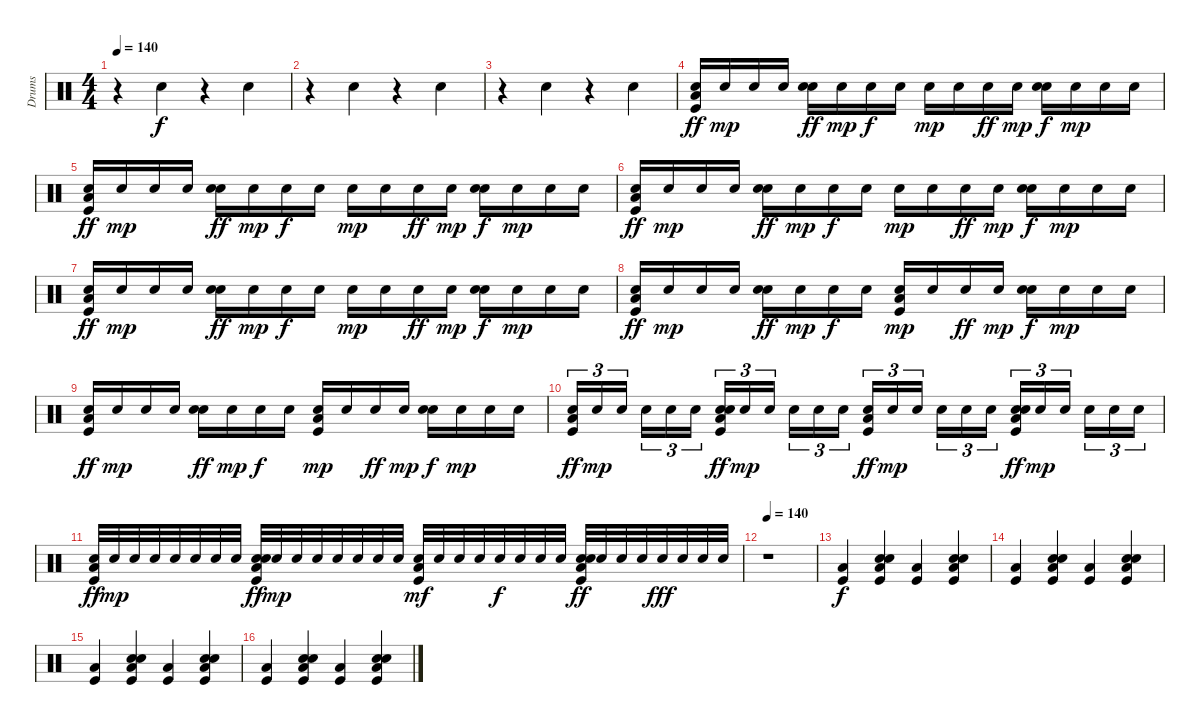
\track ("Drums" "Drums") {instrument percussion}
\staff {score}
\articulation defaults
\ts (4 4)
\tempo 140
\clef neutral
\ks c
r.4{dy f} "Hand Clap (hit)".4 r.4 "Hand Clap (hit)".4 |
r.4 "Hand Clap (hit)".4 r.4 "Hand Clap (hit)".4 |
r.4 "Hand Clap (hit)".4 r.4 "Hand Clap (hit)".4 |
("Snare (hit) 2" "Low Floor Tom (hit)" "Kick (hit)").16{dy ff} "Snare (hit) 2".16{dy mp} "Snare (hit) 2".16 "Snare (hit) 2".16 ("Hand Clap (hit)" "Snare (hit) 2").16{dy ff} "Snare (hit) 2".16{dy mp} "Snare (hit) 2".16{dy f} "Snare (hit) 2".16 "Snare (hit) 2".16{dy mp} "Snare (hit) 2".16 "Snare (hit) 2".16{dy ff} "Snare (hit) 2".16{dy mp} ("Hand Clap (hit)" "Snare (hit) 2").16{dy f} "Snare (hit) 2".16{dy mp} "Snare (hit) 2".16 "Snare (hit) 2".16 |
("Snare (hit) 2" "Low Floor Tom (hit)" "Kick (hit)").16{dy ff} "Snare (hit) 2".16{dy mp} "Snare (hit) 2".16 "Snare (hit) 2".16 ("Hand Clap (hit)" "Snare (hit) 2").16{dy ff} "Snare (hit) 2".16{dy mp} "Snare (hit) 2".16{dy f} "Snare (hit) 2".16 "Snare (hit) 2".16{dy mp} "Snare (hit) 2".16 "Snare (hit) 2".16{dy ff} "Snare (hit) 2".16{dy mp} ("Hand Clap (hit)" "Snare (hit) 2").16{dy f} "Snare (hit) 2".16{dy mp} "Snare (hit) 2".16 "Snare (hit) 2".16 |
("Snare (hit) 2" "Low Floor Tom (hit)" "Kick (hit)").16{dy ff} "Snare (hit) 2".16{dy mp} "Snare (hit) 2".16 "Snare (hit) 2".16 ("Hand Clap (hit)" "Snare (hit) 2").16{dy ff} "Snare (hit) 2".16{dy mp} "Snare (hit) 2".16{dy f} "Snare (hit) 2".16 "Snare (hit) 2".16{dy mp} "Snare (hit) 2".16 "Snare (hit) 2".16{dy ff} "Snare (hit) 2".16{dy mp} ("Hand Clap (hit)" "Snare (hit) 2").16{dy f} "Snare (hit) 2".16{dy mp} "Snare (hit) 2".16 "Snare (hit) 2".16 |
("Snare (hit) 2" "Low Floor Tom (hit)" "Kick (hit)").16{dy ff} "Snare (hit) 2".16{dy mp} "Snare (hit) 2".16 "Snare (hit) 2".16 ("Hand Clap (hit)" "Snare (hit) 2").16{dy ff} "Snare (hit) 2".16{dy mp} "Snare (hit) 2".16{dy f} "Snare (hit) 2".16 "Snare (hit) 2".16{dy mp} "Snare (hit) 2".16 "Snare (hit) 2".16{dy ff} "Snare (hit) 2".16{dy mp} ("Hand Clap (hit)" "Snare (hit) 2").16{dy f} "Snare (hit) 2".16{dy mp} "Snare (hit) 2".16 "Snare (hit) 2".16 |
("Snare (hit) 2" "Low Floor Tom (hit)" "Kick (hit)").16{dy ff} "Snare (hit) 2".16{dy mp} "Snare (hit) 2".16 "Snare (hit) 2".16 ("Hand Clap (hit)" "Snare (hit) 2").16{dy ff} "Snare (hit) 2".16{dy mp} "Snare (hit) 2".16{dy f} "Snare (hit) 2".16 ("Snare (hit) 2" "Low Floor Tom (hit)" "Kick (hit)").16{dy mp} "Snare (hit) 2".16 "Snare (hit) 2".16{dy ff} "Snare (hit) 2".16{dy mp} ("Hand Clap (hit)" "Snare (hit) 2").16{dy f} "Snare (hit) 2".16{dy mp} "Snare (hit) 2".16 "Snare (hit) 2".16 |
("Snare (hit) 2" "Low Floor Tom (hit)" "Kick (hit)").16{dy ff} "Snare (hit) 2".16{dy mp} "Snare (hit) 2".16 "Snare (hit) 2".16 ("Hand Clap (hit)" "Snare (hit) 2").16{dy ff} "Snare (hit) 2".16{dy mp} "Snare (hit) 2".16{dy f} "Snare (hit) 2".16 ("Snare (hit) 2" "Low Floor Tom (hit)" "Kick (hit)").16{dy mp} "Snare (hit) 2".16 "Snare (hit) 2".16{dy ff} "Snare (hit) 2".16{dy mp} ("Hand Clap (hit)" "Snare (hit) 2").16{dy f} "Snare (hit) 2".16{dy mp} "Snare (hit) 2".16 "Snare (hit) 2".16 |
("Snare (hit) 2" "Low Floor Tom (hit)" "Kick (hit)").16{tu (3 2) dy ff} "Snare (hit) 2".16{tu (3 2) dy mp} "Snare (hit) 2".16{tu (3 2)} "Snare (hit) 2".16{tu (3 2)} "Snare (hit) 2".16{tu (3 2)} "Snare (hit) 2".16{tu (3 2)} ("Hand Clap (hit)" "Snare (hit) 2" "Low Floor Tom (hit)" "Kick (hit)").16{tu (3 2) dy ff} "Snare (hit) 2".16{tu (3 2) dy mp} "Snare (hit) 2".16{tu (3 2)} "Snare (hit) 2".16{tu (3 2)} "Snare (hit) 2".16{tu (3 2)} "Snare (hit) 2".16{tu (3 2)} ("Snare (hit) 2" "Low Floor Tom (hit)" "Kick (hit)").16{tu (3 2) dy ff} "Snare (hit) 2".16{tu (3 2) dy mp} "Snare (hit) 2".16{tu (3 2)} "Snare (hit) 2".16{tu (3 2)} "Snare (hit) 2".16{tu (3 2)} "Snare (hit) 2".16{tu (3 2)} ("Hand Clap (hit)" "Snare (hit) 2" "Low Floor Tom (hit)" "Kick (hit)").16{tu (3 2) dy ff} "Snare (hit) 2".16{tu (3 2) dy mp} "Snare (hit) 2".16{tu (3 2)} "Snare (hit) 2".16{tu (3 2)} "Snare (hit) 2".16{tu (3 2)} "Snare (hit) 2".16{tu (3 2)} |
("Snare (hit) 2" "Low Floor Tom (hit)" "Kick (hit)").32{dy ff} "Snare (hit) 2".32{dy mp} "Snare (hit) 2".32 "Snare (hit) 2".32 "Snare (hit) 2".32 "Snare (hit) 2".32 "Snare (hit) 2".32 "Snare (hit) 2".32 ("Hand Clap (hit)" "Snare (hit) 2" "Low Floor Tom (hit)" "Kick (hit)").32{dy ff} "Snare (hit) 2".32{dy mp} "Snare (hit) 2".32 "Snare (hit) 2".32 "Snare (hit) 2".32 "Snare (hit) 2".32 "Snare (hit) 2".32 "Snare (hit) 2".32 ("Snare (hit) 2" "Low Floor Tom (hit)" "Kick (hit)").32{dy mf} "Snare (hit) 2".32 "Snare (hit) 2".32 "Snare (hit) 2".32 "Snare (hit) 2".32{dy f} "Snare (hit) 2".32 "Snare (hit) 2".32 "Snare (hit) 2".32 ("Hand Clap (hit)" "Snare (hit) 2" "Low Floor Tom (hit)" "Kick (hit)").32{dy ff} "Snare (hit) 2".32 "Snare (hit) 2".32 "Snare (hit) 2".32 "Snare (hit) 2".32{dy fff} "Snare (hit) 2".32 "Snare (hit) 2".32 "Snare (hit) 2".32 |
\tempo 140
r.1{volume 16} |
("Low Floor Tom (hit)" "Kick (hit)").4{dy f} ("Hand Clap (hit)" "Snare (hit) 2" "Low Floor Tom (hit)" "Kick (hit)").4 ("Low Floor Tom (hit)" "Kick (hit)").4 ("Hand Clap (hit)" "Snare (hit) 2" "Low Floor Tom (hit)" "Kick (hit)").4 |
("Low Floor Tom (hit)" "Kick (hit)").4 ("Hand Clap (hit)" "Snare (hit) 2" "Low Floor Tom (hit)" "Kick (hit)").4 ("Low Floor Tom (hit)" "Kick (hit)").4 ("Hand Clap (hit)" "Snare (hit) 2" "Low Floor Tom (hit)" "Kick (hit)").4 |
("Low Floor Tom (hit)" "Kick (hit)").4 ("Hand Clap (hit)" "Snare (hit) 2" "Low Floor Tom (hit)" "Kick (hit)").4 ("Low Floor Tom (hit)" "Kick (hit)").4 ("Hand Clap (hit)" "Snare (hit) 2" "Low Floor Tom (hit)" "Kick (hit)").4 |
("Low Floor Tom (hit)" "Kick (hit)").4 ("Hand Clap (hit)" "Snare (hit) 2" "Low Floor Tom (hit)" "Kick (hit)").4 ("Low Floor Tom (hit)" "Kick (hit)").4 ("Hand Clap (hit)" "Snare (hit) 2" "Low Floor Tom (hit)" "Kick (hit)").4
